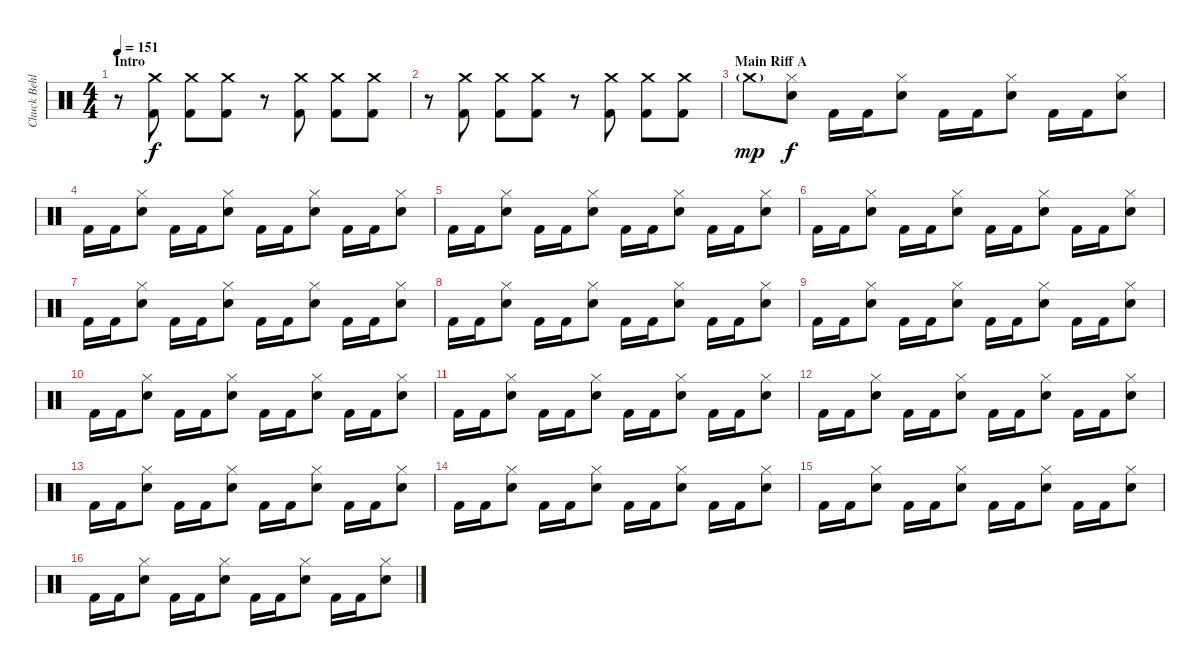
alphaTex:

\track ("Chuck Behler" "Chuck Behl") {instrument percussion}
\staff {score}
\articulation defaults
\ts (4 4)
\section ("" "Intro")
\tempo 151
\clef neutral
\ks c
r.8{dy f} ("Crash medium (hit)" "Kick (hit) 2").8 ("Crash medium (hit)" "Kick (hit) 2").8 ("Crash medium (hit)" "Kick (hit) 2").8 r.8 ("Crash medium (hit)" "Kick (hit) 2").8 ("Crash medium (hit)" "Kick (hit) 2").8 ("Crash medium (hit)" "Kick (hit) 2").8 |
r.8 ("Crash medium (hit)" "Kick (hit) 2").8 ("Crash medium (hit)" "Kick (hit) 2").8 ("Crash medium (hit)" "Kick (hit) 2").8 r.8 ("Crash medium (hit)" "Kick (hit) 2").8 ("Crash medium (hit)" "Kick (hit) 2").8 ("Crash medium (hit)" "Kick (hit) 2").8 |
\section ("" "Main Riff A")
"Crash medium (hit)"{g}.8{dy mp} ("Hi-Hat (closed)" "Electric Snare (hit)").8{dy f} "Kick (hit) 2".16 "Kick (hit) 2".16 ("Hi-Hat (closed)" "Electric Snare (hit)").8 "Kick (hit) 2".16 "Kick (hit) 2".16 ("Hi-Hat (closed)" "Electric Snare (hit)").8 "Kick (hit) 2".16 "Kick (hit) 2".16 ("Hi-Hat (closed)" "Electric Snare (hit)").8 |
"Kick (hit) 2".16 "Kick (hit) 2".16 ("Hi-Hat (closed)" "Electric Snare (hit)").8 "Kick (hit) 2".16 "Kick (hit) 2".16 ("Hi-Hat (closed)" "Electric Snare (hit)").8 "Kick (hit) 2".16 "Kick (hit) 2".16 ("Hi-Hat (closed)" "Electric Snare (hit)").8 "Kick (hit) 2".16 "Kick (hit) 2".16 ("Hi-Hat (closed)" "Electric Snare (hit)").8 |
"Kick (hit) 2".16 "Kick (hit) 2".16 ("Hi-Hat (closed)" "Electric Snare (hit)").8 "Kick (hit) 2".16 "Kick (hit) 2".16 ("Hi-Hat (closed)" "Electric Snare (hit)").8 "Kick (hit) 2".16 "Kick (hit) 2".16 ("Hi-Hat (closed)" "Electric Snare (hit)").8 "Kick (hit) 2".16 "Kick (hit) 2".16 ("Hi-Hat (closed)" "Electric Snare (hit)").8 |
"Kick (hit) 2".16 "Kick (hit) 2".16 ("Hi-Hat (closed)" "Electric Snare (hit)").8 "Kick (hit) 2".16 "Kick (hit) 2".16 ("Hi-Hat (closed)" "Electric Snare (hit)").8 "Kick (hit) 2".16 "Kick (hit) 2".16 ("Hi-Hat (closed)" "Electric Snare (hit)").8 "Kick (hit) 2".16 "Kick (hit) 2".16 ("Hi-Hat (closed)" "Electric Snare (hit)").8 |
"Kick (hit) 2".16 "Kick (hit) 2".16 ("Hi-Hat (closed)" "Electric Snare (hit)").8 "Kick (hit) 2".16 "Kick (hit) 2".16 ("Hi-Hat (closed)" "Electric Snare (hit)").8 "Kick (hit) 2".16 "Kick (hit) 2".16 ("Hi-Hat (closed)" "Electric Snare (hit)").8 "Kick (hit) 2".16 "Kick (hit) 2".16 ("Hi-Hat (closed)" "Electric Snare (hit)").8 |
"Kick (hit) 2".16 "Kick (hit) 2".16 ("Hi-Hat (closed)" "Electric Snare (hit)").8 "Kick (hit) 2".16 "Kick (hit) 2".16 ("Hi-Hat (closed)" "Electric Snare (hit)").8 "Kick (hit) 2".16 "Kick (hit) 2".16 ("Hi-Hat (closed)" "Electric Snare (hit)").8 "Kick (hit) 2".16 "Kick (hit) 2".16 ("Hi-Hat (closed)" "Electric Snare (hit)").8 |
"Kick (hit) 2".16 "Kick (hit) 2".16 ("Hi-Hat (closed)" "Electric Snare (hit)").8 "Kick (hit) 2".16 "Kick (hit) 2".16 ("Hi-Hat (closed)" "Electric Snare (hit)").8 "Kick (hit) 2".16 "Kick (hit) 2".16 ("Hi-Hat (closed)" "Electric Snare (hit)").8 "Kick (hit) 2".16 "Kick (hit) 2".16 ("Hi-Hat (closed)" "Electric Snare (hit)").8 |
"Kick (hit) 2".16 "Kick (hit) 2".16 ("Hi-Hat (closed)" "Electric Snare (hit)").8 "Kick (hit) 2".16 "Kick (hit) 2".16 ("Hi-Hat (closed)" "Electric Snare (hit)").8 "Kick (hit) 2".16 "Kick (hit) 2".16 ("Hi-Hat (closed)" "Electric Snare (hit)").8 "Kick (hit) 2".16 "Kick (hit) 2".16 ("Hi-Hat (closed)" "Electric Snare (hit)").8 |
"Kick (hit) 2".16 "Kick (hit) 2".16 ("Hi-Hat (closed)" "Electric Snare (hit)").8 "Kick (hit) 2".16 "Kick (hit) 2".16 ("Hi-Hat (closed)" "Electric Snare (hit)").8 "Kick (hit) 2".16 "Kick (hit) 2".16 ("Hi-Hat (closed)" "Electric Snare (hit)").8 "Kick (hit) 2".16 "Kick (hit) 2".16 ("Hi-Hat (closed)" "Electric Snare (hit)").8 |
"Kick (hit) 2".16 "Kick (hit) 2".16 ("Hi-Hat (closed)" "Electric Snare (hit)").8 "Kick (hit) 2".16 "Kick (hit) 2".16 ("Hi-Hat (closed)" "Electric Snare (hit)").8 "Kick (hit) 2".16 "Kick (hit) 2".16 ("Hi-Hat (closed)" "Electric Snare (hit)").8 "Kick (hit) 2".16 "Kick (hit) 2".16 ("Hi-Hat (closed)" "Electric Snare (hit)").8 |
"Kick (hit) 2".16 "Kick (hit) 2".16 ("Hi-Hat (closed)" "Electric Snare (hit)").8 "Kick (hit) 2".16 "Kick (hit) 2".16 ("Hi-Hat (closed)" "Electric Snare (hit)").8 "Kick (hit) 2".16 "Kick (hit) 2".16 ("Hi-Hat (closed)" "Electric Snare (hit)").8 "Kick (hit) 2".16 "Kick (hit) 2".16 ("Hi-Hat (closed)" "Electric Snare (hit)").8 |
"Kick (hit) 2".16 "Kick (hit) 2".16 ("Hi-Hat (closed)" "Electric Snare (hit)").8 "Kick (hit) 2".16 "Kick (hit) 2".16 ("Hi-Hat (closed)" "Electric Snare (hit)").8 "Kick (hit) 2".16 "Kick (hit) 2".16 ("Hi-Hat (closed)" "Electric Snare (hit)").8 "Kick (hit) 2".16 "Kick (hit) 2".16 ("Hi-Hat (closed)" "Electric Snare (hit)").8 |
"Kick (hit) 2".16 "Kick (hit) 2".16 ("Hi-Hat (closed)" "Electric Snare (hit)").8 "Kick (hit) 2".16 "Kick (hit) 2".16 ("Hi-Hat (closed)" "Electric Snare (hit)").8 "Kick (hit) 2".16 "Kick (hit) 2".16 ("Hi-Hat (closed)" "Electric Snare (hit)").8 "Kick (hit) 2".16 "Kick (hit) 2".16 ("Hi-Hat (closed)" "Electric Snare (hit)").8 |
"Kick (hit) 2".16 "Kick (hit) 2".16 ("Hi-Hat (closed)" "Electric Snare (hit)").8 "Kick (hit) 2".16 "Kick (hit) 2".16 ("Hi-Hat (closed)" "Electric Snare (hit)").8 "Kick (hit) 2".16 "Kick (hit) 2".16 ("Hi-Hat (closed)" "Electric Snare (hit)").8 "Kick (hit) 2".16 "Kick (hit) 2".16 ("Hi-Hat (closed)" "Electric Snare (hit)").8
